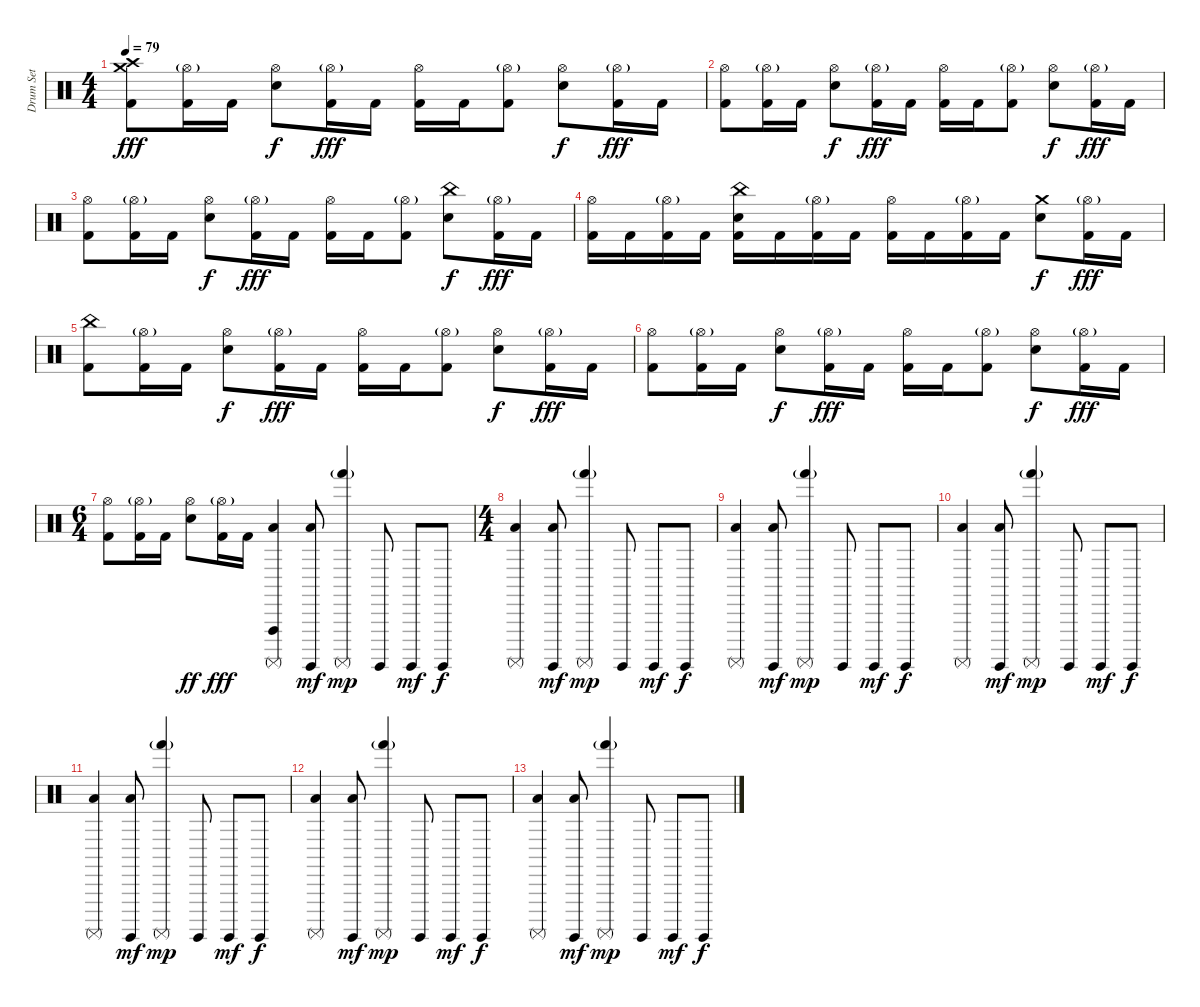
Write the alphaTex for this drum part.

\track ("Drum Set" "Drum Set") {instrument percussion}
\staff {score}
\articulation defaults
\ts (4 4)
\tempo 79
\clef neutral
\ks c
("Crash high (hit)" "Crash medium (hit)" "Kick (hit) 2").8{dy fff} ("Hi-Hat (open)"{g} "Kick (hit) 2").16 "Kick (hit) 2".16 ("Hi-Hat (open)" "Snare (hit) 2").8{dy f} ("Hi-Hat (open)"{g} "Kick (hit) 2").16{dy fff} "Kick (hit) 2".16 ("Hi-Hat (open)" "Kick (hit) 2").16 "Kick (hit) 2".16 ("Hi-Hat (open)"{g} "Kick (hit) 2").8 ("Hi-Hat (open)" "Snare (hit) 2").8{dy f} ("Hi-Hat (open)"{g} "Kick (hit) 2").16{dy fff} "Kick (hit) 2".16 |
("Hi-Hat (open)" "Kick (hit) 2").8 ("Hi-Hat (open)"{g} "Kick (hit) 2").16 "Kick (hit) 2".16 ("Hi-Hat (open)" "Snare (hit) 2").8{dy f} ("Hi-Hat (open)"{g} "Kick (hit) 2").16{dy fff} "Kick (hit) 2".16 ("Hi-Hat (open)" "Kick (hit) 2").16 "Kick (hit) 2".16 ("Hi-Hat (open)"{g} "Kick (hit) 2").8 ("Hi-Hat (open)" "Snare (hit) 2").8{dy f} ("Hi-Hat (open)"{g} "Kick (hit) 2").16{dy fff} "Kick (hit) 2".16 |
("Hi-Hat (open)" "Kick (hit) 2").8 ("Hi-Hat (open)"{g} "Kick (hit) 2").16 "Kick (hit) 2".16 ("Hi-Hat (open)" "Snare (hit) 2").8{dy f} ("Hi-Hat (open)"{g} "Kick (hit) 2").16{dy fff} "Kick (hit) 2".16 ("Hi-Hat (open)" "Kick (hit) 2").16 "Kick (hit) 2".16 ("Hi-Hat (open)"{g} "Kick (hit) 2").8 ("China (hit)" "Snare (hit) 2").8{dy f} ("Hi-Hat (open)"{g} "Kick (hit) 2").16{dy fff} "Kick (hit) 2".16 |
("Hi-Hat (open)" "Kick (hit) 2").16 "Kick (hit) 2".16 ("Hi-Hat (open)"{g} "Kick (hit) 2").16 "Kick (hit) 2".16 ("China (hit)" "Snare (hit) 2" "Kick (hit) 2").16 "Kick (hit) 2".16 ("Hi-Hat (open)"{g} "Kick (hit) 2").16 "Kick (hit) 2".16 ("Hi-Hat (open)" "Kick (hit) 2").16 "Kick (hit) 2".16 ("Hi-Hat (open)"{g} "Kick (hit) 2").16 "Kick (hit) 2".16 ("Crash medium (hit)" "Snare (hit) 2").8{dy f} ("Hi-Hat (open)"{g} "Kick (hit) 2").16{dy fff} "Kick (hit) 2".16 |
("China (hit)" "Kick (hit) 2").8 ("Hi-Hat (open)"{g} "Kick (hit) 2").16 "Kick (hit) 2".16 ("Hi-Hat (open)" "Snare (hit) 2").8{dy f} ("Hi-Hat (open)"{g} "Kick (hit) 2").16{dy fff} "Kick (hit) 2".16 ("Hi-Hat (open)" "Kick (hit) 2").16 "Kick (hit) 2".16 ("Hi-Hat (open)"{g} "Kick (hit) 2").8 ("Hi-Hat (open)" "Snare (hit) 2").8{dy f} ("Hi-Hat (open)"{g} "Kick (hit) 2").16{dy fff} "Kick (hit) 2".16 |
("Hi-Hat (open)" "Kick (hit) 2").8 ("Hi-Hat (open)"{g} "Kick (hit) 2").16 "Kick (hit) 2".16 ("Hi-Hat (open)" "Snare (hit) 2").8{dy f} ("Hi-Hat (open)"{g} "Kick (hit) 2").16{dy fff} "Kick (hit) 2".16 ("Hi-Hat (open)" "Kick (hit) 2").16 "Kick (hit) 2".16 ("Hi-Hat (open)"{g} "Kick (hit) 2").8 ("Hi-Hat (open)" "Snare (hit) 2").8{dy f} ("Hi-Hat (open)"{g} "Kick (hit) 2").16{dy fff} "Kick (hit) 2".16 |
\ts (6 4)
("Hi-Hat (open)" "Kick (hit) 2").8 ("Hi-Hat (open)"{g} "Kick (hit) 2").16 "Kick (hit) 2".16 ("Hi-Hat (open)" "Snare (hit) 2").8{dy ff} ("Hi-Hat (open)"{g} "Kick (hit) 2").16{dy fff} "Kick (hit) 2".16 ("Vibraslap (hit)" "Low Floor Tom (hit)" "Surdo (mute)").4 ("Low Floor Tom (hit)" "Surdo (hit)").8{dy mf} ("Surdo (mute)" "Hand (hit)"{g}).4{dy mp} "Surdo (hit)".8 "Surdo (hit)".8{dy mf} "Surdo (hit)".8{dy f} |
\ts (4 4)
("Low Floor Tom (hit)" "Surdo (mute)").4 ("Low Floor Tom (hit)" "Surdo (hit)").8{dy mf} ("Surdo (mute)" "Hand (hit)"{g}).4{dy mp} "Surdo (hit)".8 "Surdo (hit)".8{dy mf} "Surdo (hit)".8{dy f} |
("Low Floor Tom (hit)" "Surdo (mute)").4 ("Low Floor Tom (hit)" "Surdo (hit)").8{dy mf} ("Surdo (mute)" "Hand (hit)"{g}).4{dy mp} "Surdo (hit)".8 "Surdo (hit)".8{dy mf} "Surdo (hit)".8{dy f} |
("Low Floor Tom (hit)" "Surdo (mute)").4 ("Low Floor Tom (hit)" "Surdo (hit)").8{dy mf} ("Surdo (mute)" "Hand (hit)"{g}).4{dy mp} "Surdo (hit)".8 "Surdo (hit)".8{dy mf} "Surdo (hit)".8{dy f} |
("Low Floor Tom (hit)" "Surdo (mute)").4 ("Low Floor Tom (hit)" "Surdo (hit)").8{dy mf} ("Surdo (mute)" "Hand (hit)"{g}).4{dy mp} "Surdo (hit)".8 "Surdo (hit)".8{dy mf} "Surdo (hit)".8{dy f} |
("Low Floor Tom (hit)" "Surdo (mute)").4 ("Low Floor Tom (hit)" "Surdo (hit)").8{dy mf} ("Surdo (mute)" "Hand (hit)"{g}).4{dy mp} "Surdo (hit)".8 "Surdo (hit)".8{dy mf} "Surdo (hit)".8{dy f} |
("Low Floor Tom (hit)" "Surdo (mute)").4 ("Low Floor Tom (hit)" "Surdo (hit)").8{dy mf} ("Surdo (mute)" "Hand (hit)"{g}).4{dy mp} "Surdo (hit)".8 "Surdo (hit)".8{dy mf} "Surdo (hit)".8{dy f}
